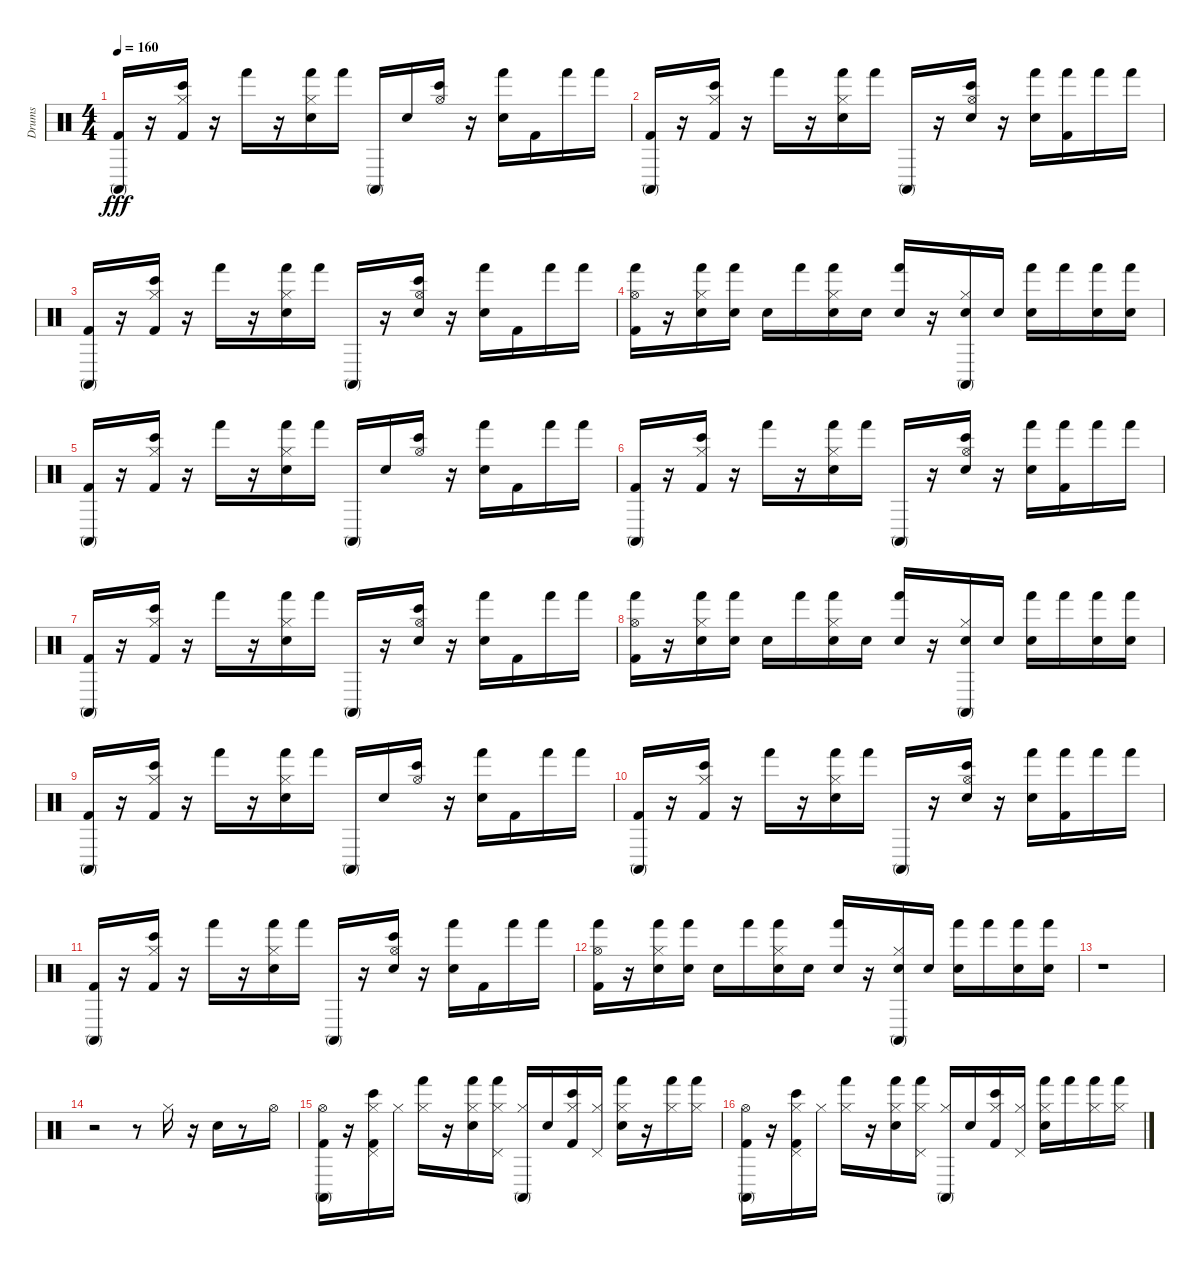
\track ("Drums" "Drums") {instrument percussion}
\staff {score}
\articulation defaults
\ts (4 4)
\tempo 160
\clef neutral
\ks c
("Kick (hit) 2" "Conga high (mute)").16{dy fff} r.16 ("Kick (hit) 2" "Hi-Hat (closed)" "Bongo High (hit)").16 r.16 "Hand (hit)".16 r.16 ("Electric Snare (hit)" "Hand (hit)" "Hi-Hat (closed)").16 "Hand (hit)".16 "Conga high (mute)".16 "Electric Snare (hit)".16 ("Bongo High (hit)" "Hi-Hat (open)").16 r.16 ("Hand (hit)" "Electric Snare (hit)").16 "Kick (hit) 2".16 "Hand (hit)".16 "Hand (hit)".16 |
("Kick (hit) 2" "Conga high (mute)").16 r.16 ("Hi-Hat (closed)" "Bongo High (hit)" "Kick (hit) 2").16 r.16 "Hand (hit)".16 r.16 ("Electric Snare (hit)" "Hand (hit)" "Hi-Hat (closed)").16 "Hand (hit)".16 "Conga high (mute)".16 r.16 ("Bongo High (hit)" "Hi-Hat (open)" "Electric Snare (hit)").16 r.16 ("Hand (hit)" "Electric Snare (hit)").16 ("Hand (hit)" "Kick (hit) 2").16 "Hand (hit)".16 "Hand (hit)".16 |
("Kick (hit) 2" "Conga high (mute)").16 r.16 ("Bongo High (hit)" "Hi-Hat (closed)" "Kick (hit) 2").16 r.16 "Hand (hit)".16 r.16 ("Hi-Hat (closed)" "Hand (hit)" "Electric Snare (hit)").16 "Hand (hit)".16 "Conga high (mute)".16 r.16 ("Bongo High (hit)" "Electric Snare (hit)" "Hi-Hat (open)").16 r.16 ("Electric Snare (hit)" "Hand (hit)").16 "Kick (hit) 2".16 "Hand (hit)".16 "Hand (hit)".16 |
("Kick (hit) 2" "Hi-Hat (open)" "Hand (hit)").16 r.16 ("Hi-Hat (closed)" "Electric Snare (hit)" "Hand (hit)").16 ("Electric Snare (hit)" "Hand (hit)").16 "Electric Snare (hit)".16 "Hand (hit)".16 ("Electric Snare (hit)" "Hi-Hat (closed)" "Hand (hit)").16 "Electric Snare (hit)".16 ("Electric Snare (hit)" "Hand (hit)").16 r.16 ("Electric Snare (hit)" "Hi-Hat (closed)" "Conga high (mute)").16 "Electric Snare (hit)".16 ("Electric Snare (hit)" "Hand (hit)").16 "Hand (hit)".16 ("Hand (hit)" "Electric Snare (hit)").16 ("Hand (hit)" "Electric Snare (hit)").16 |
("Kick (hit) 2" "Conga high (mute)").16 r.16 ("Hi-Hat (closed)" "Bongo High (hit)" "Kick (hit) 2").16 r.16 "Hand (hit)".16 r.16 ("Hand (hit)" "Electric Snare (hit)" "Hi-Hat (closed)").16 "Hand (hit)".16 "Conga high (mute)".16 "Electric Snare (hit)".16 ("Hi-Hat (open)" "Bongo High (hit)").16 r.16 ("Electric Snare (hit)" "Hand (hit)").16 "Kick (hit) 2".16 "Hand (hit)".16 "Hand (hit)".16 |
("Kick (hit) 2" "Conga high (mute)").16 r.16 ("Bongo High (hit)" "Hi-Hat (closed)" "Kick (hit) 2").16 r.16 "Hand (hit)".16 r.16 ("Hand (hit)" "Electric Snare (hit)" "Hi-Hat (closed)").16 "Hand (hit)".16 "Conga high (mute)".16 r.16 ("Hi-Hat (open)" "Bongo High (hit)" "Electric Snare (hit)").16 r.16 ("Electric Snare (hit)" "Hand (hit)").16 ("Hand (hit)" "Kick (hit) 2").16 "Hand (hit)".16 "Hand (hit)".16 |
("Kick (hit) 2" "Conga high (mute)").16 r.16 ("Hi-Hat (closed)" "Kick (hit) 2" "Bongo High (hit)").16 r.16 "Hand (hit)".16 r.16 ("Hi-Hat (closed)" "Electric Snare (hit)" "Hand (hit)").16 "Hand (hit)".16 "Conga high (mute)".16 r.16 ("Bongo High (hit)" "Hi-Hat (open)" "Electric Snare (hit)").16 r.16 ("Electric Snare (hit)" "Hand (hit)").16 "Kick (hit) 2".16 "Hand (hit)".16 "Hand (hit)".16 |
("Hand (hit)" "Hi-Hat (open)" "Kick (hit) 2").16 r.16 ("Hi-Hat (closed)" "Electric Snare (hit)" "Hand (hit)").16 ("Hand (hit)" "Electric Snare (hit)").16 "Electric Snare (hit)".16 "Hand (hit)".16 ("Hi-Hat (closed)" "Electric Snare (hit)" "Hand (hit)").16 "Electric Snare (hit)".16 ("Electric Snare (hit)" "Hand (hit)").16 r.16 ("Conga high (mute)" "Hi-Hat (closed)" "Electric Snare (hit)").16 "Electric Snare (hit)".16 ("Electric Snare (hit)" "Hand (hit)").16 "Hand (hit)".16 ("Electric Snare (hit)" "Hand (hit)").16 ("Hand (hit)" "Electric Snare (hit)").16 |
("Kick (hit) 2" "Conga high (mute)").16 r.16 ("Kick (hit) 2" "Hi-Hat (closed)" "Bongo High (hit)").16 r.16 "Hand (hit)".16 r.16 ("Hand (hit)" "Hi-Hat (closed)" "Electric Snare (hit)").16 "Hand (hit)".16 "Conga high (mute)".16 "Electric Snare (hit)".16 ("Hi-Hat (open)" "Bongo High (hit)").16 r.16 ("Hand (hit)" "Electric Snare (hit)").16 "Kick (hit) 2".16 "Hand (hit)".16 "Hand (hit)".16 |
("Kick (hit) 2" "Conga high (mute)").16 r.16 ("Kick (hit) 2" "Hi-Hat (closed)" "Bongo High (hit)").16 r.16 "Hand (hit)".16 r.16 ("Hi-Hat (closed)" "Hand (hit)" "Electric Snare (hit)").16 "Hand (hit)".16 "Conga high (mute)".16 r.16 ("Hi-Hat (open)" "Bongo High (hit)" "Electric Snare (hit)").16 r.16 ("Hand (hit)" "Electric Snare (hit)").16 ("Hand (hit)" "Kick (hit) 2").16 "Hand (hit)".16 "Hand (hit)".16 |
("Conga high (mute)" "Kick (hit) 2").16 r.16 ("Bongo High (hit)" "Kick (hit) 2" "Hi-Hat (closed)").16 r.16 "Hand (hit)".16 r.16 ("Electric Snare (hit)" "Hand (hit)" "Hi-Hat (closed)").16 "Hand (hit)".16 "Conga high (mute)".16 r.16 ("Electric Snare (hit)" "Hi-Hat (open)" "Bongo High (hit)").16 r.16 ("Hand (hit)" "Electric Snare (hit)").16 "Kick (hit) 2".16 "Hand (hit)".16 "Hand (hit)".16 |
("Kick (hit) 2" "Hand (hit)" "Hi-Hat (open)").16 r.16 ("Electric Snare (hit)" "Hand (hit)" "Hi-Hat (closed)").16 ("Electric Snare (hit)" "Hand (hit)").16 "Electric Snare (hit)".16 "Hand (hit)".16 ("Hand (hit)" "Electric Snare (hit)" "Hi-Hat (closed)").16 "Electric Snare (hit)".16 ("Hand (hit)" "Electric Snare (hit)").16 r.16 ("Hi-Hat (closed)" "Conga high (mute)" "Electric Snare (hit)").16 "Electric Snare (hit)".16 ("Hand (hit)" "Electric Snare (hit)").16 "Hand (hit)".16 ("Electric Snare (hit)" "Hand (hit)").16 ("Electric Snare (hit)" "Hand (hit)").16 |
r.1 |
r.2 r.8 "Hi-Hat (closed)".16 r.16 "Electric Snare (hit)".16 r.8 "Hi-Hat (open)".16 |
("Hi-Hat (open)" "Kick (hit) 2" "Conga high (mute)").16 r.16 ("Hi-Hat (closed)" "Kick (hit) 2" "Bongo High (hit)" "Pedal Hi-Hat (hit)").16 "Hi-Hat (closed)".16 ("Hi-Hat (closed)" "Hand (hit)").16 r.16 ("Hi-Hat (closed)" "Electric Snare (hit)" "Hand (hit)").16 ("Hand (hit)" "Pedal Hi-Hat (hit)" "Hi-Hat (closed)").16 ("Conga high (mute)" "Hi-Hat (closed)").16 "Electric Snare (hit)".16 ("Kick (hit) 2" "Hi-Hat (closed)" "Bongo High (hit)").16 ("Hi-Hat (closed)" "Pedal Hi-Hat (hit)").16 ("Electric Snare (hit)" "Hand (hit)" "Hi-Hat (closed)").16 r.16 ("Hi-Hat (closed)" "Hand (hit)").16 ("Hi-Hat (closed)" "Hand (hit)").16 |
("Kick (hit) 2" "Hi-Hat (open)" "Conga high (mute)").16 r.16 ("Bongo High (hit)" "Hi-Hat (closed)" "Kick (hit) 2" "Pedal Hi-Hat (hit)").16 "Hi-Hat (closed)".16 ("Hi-Hat (closed)" "Hand (hit)").16 r.16 ("Hi-Hat (closed)" "Electric Snare (hit)" "Hand (hit)").16 ("Pedal Hi-Hat (hit)" "Hand (hit)" "Hi-Hat (closed)").16 ("Conga high (mute)" "Hi-Hat (closed)").16 "Electric Snare (hit)".16 ("Bongo High (hit)" "Kick (hit) 2" "Hi-Hat (closed)").16 ("Hi-Hat (closed)" "Pedal Hi-Hat (hit)").16 ("Electric Snare (hit)" "Hand (hit)" "Hi-Hat (closed)").16 "Hand (hit)".16 ("Hi-Hat (closed)" "Hand (hit)").16 ("Hand (hit)" "Hi-Hat (closed)").16
